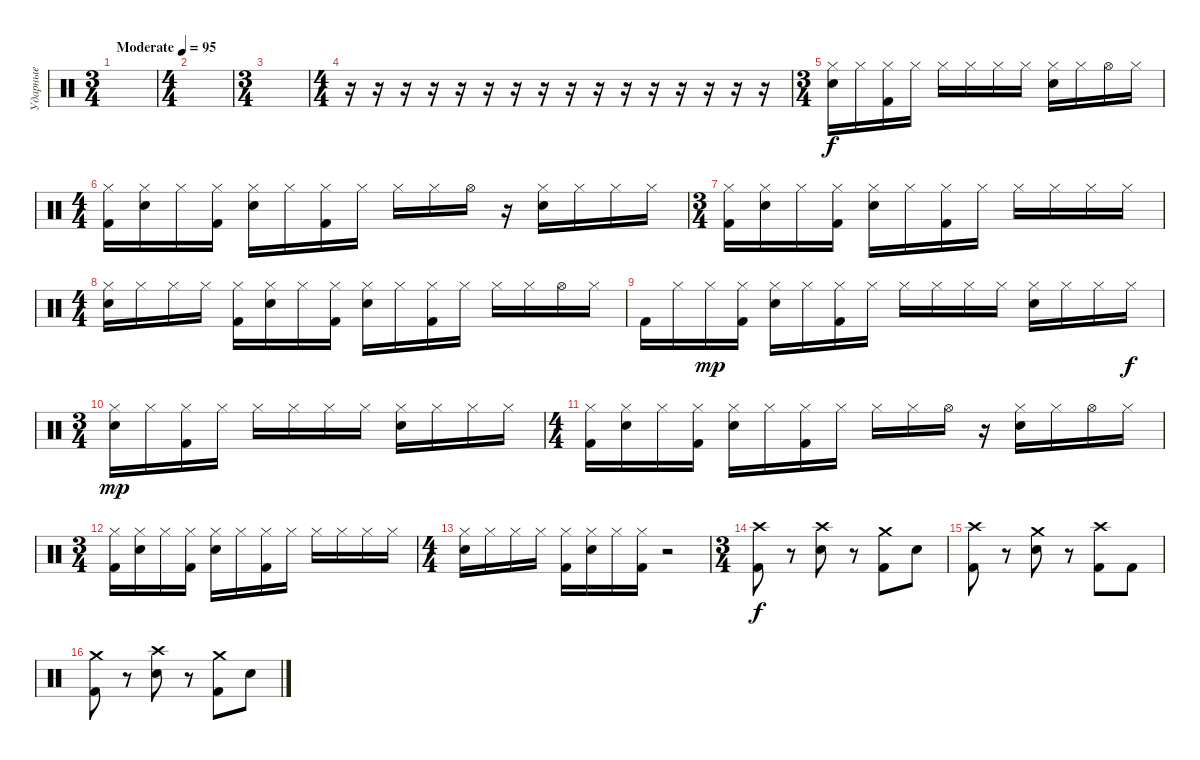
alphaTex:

\track ("Ударные" "Ударные") {instrument percussion}
\staff {score}
\articulation defaults
\ts (3 4)
\tempo (95 "Moderate")
\clef neutral
\ks c
|
\ts (4 4)
|
\ts (3 4)
|
\ts (4 4)
r.16 r.16 r.16 r.16 r.16 r.16 r.16 r.16 r.16 r.16 r.16 r.16 r.16 r.16 r.16 r.16 |
\ts (3 4)
("Hi-Hat (closed)" "Electric Snare (hit)").16 "Hi-Hat (closed)".16 ("Hi-Hat (closed)" "Kick (hit) 2").16 "Hi-Hat (closed)".16 "Hi-Hat (closed)".16 "Hi-Hat (closed)".16 "Hi-Hat (closed)".16 "Hi-Hat (closed)".16 ("Hi-Hat (closed)" "Electric Snare (hit)").16 "Hi-Hat (closed)".16 "Hi-Hat (open)".16 "Hi-Hat (closed)".16 |
\ts (4 4)
("Hi-Hat (closed)" "Kick (hit) 2").16 ("Hi-Hat (closed)" "Electric Snare (hit)").16 "Hi-Hat (closed)".16 ("Hi-Hat (closed)" "Kick (hit) 2").16 ("Hi-Hat (closed)" "Electric Snare (hit)").16 "Hi-Hat (closed)".16 ("Hi-Hat (closed)" "Kick (hit) 2").16 "Hi-Hat (closed)".16 "Hi-Hat (closed)".16 "Hi-Hat (closed)".16 "Hi-Hat (open)".16 r.16 ("Hi-Hat (closed)" "Electric Snare (hit)").16 "Hi-Hat (closed)".16 "Hi-Hat (closed)".16 "Hi-Hat (closed)".16 |
\ts (3 4)
("Hi-Hat (closed)" "Kick (hit) 2").16 ("Hi-Hat (closed)" "Electric Snare (hit)").16 "Hi-Hat (closed)".16 ("Hi-Hat (closed)" "Kick (hit) 2").16 ("Hi-Hat (closed)" "Electric Snare (hit)").16 "Hi-Hat (closed)".16 ("Hi-Hat (closed)" "Kick (hit) 2").16 "Hi-Hat (closed)".16 "Hi-Hat (closed)".16 "Hi-Hat (closed)".16 "Hi-Hat (closed)".16 "Hi-Hat (closed)".16 |
\ts (4 4)
("Hi-Hat (closed)" "Electric Snare (hit)").16 "Hi-Hat (closed)".16 "Hi-Hat (closed)".16 "Hi-Hat (closed)".16 ("Hi-Hat (closed)" "Kick (hit) 2").16 ("Hi-Hat (closed)" "Electric Snare (hit)").16 "Hi-Hat (closed)".16 ("Hi-Hat (closed)" "Kick (hit) 2").16 ("Hi-Hat (closed)" "Electric Snare (hit)").16 "Hi-Hat (closed)".16 ("Hi-Hat (closed)" "Kick (hit) 2").16 "Hi-Hat (closed)".16 "Hi-Hat (closed)".16 "Hi-Hat (closed)".16{dy f} "Hi-Hat (open)".16 "Hi-Hat (closed)".16 |
"Kick (hit) 2".16 "Hi-Hat (closed)".16 "Hi-Hat (closed)".16{dy mp} ("Hi-Hat (closed)" "Kick (hit) 2").16 ("Hi-Hat (closed)" "Electric Snare (hit)").16 "Hi-Hat (closed)".16 ("Hi-Hat (closed)" "Kick (hit) 2").16 "Hi-Hat (closed)".16 "Hi-Hat (closed)".16 "Hi-Hat (closed)".16 "Hi-Hat (closed)".16 "Hi-Hat (closed)".16 ("Hi-Hat (closed)" "Electric Snare (hit)").16 "Hi-Hat (closed)".16 "Hi-Hat (closed)".16 "Hi-Hat (closed)".16{dy f} |
\ts (3 4)
("Hi-Hat (closed)" "Electric Snare (hit)").16{dy mp} "Hi-Hat (closed)".16 ("Hi-Hat (closed)" "Kick (hit) 2").16 "Hi-Hat (closed)".16 "Hi-Hat (closed)".16 "Hi-Hat (closed)".16 "Hi-Hat (closed)".16 "Hi-Hat (closed)".16 ("Hi-Hat (closed)" "Electric Snare (hit)").16 "Hi-Hat (closed)".16 "Hi-Hat (closed)".16 "Hi-Hat (closed)".16 |
\ts (4 4)
("Hi-Hat (closed)" "Kick (hit) 2").16 ("Hi-Hat (closed)" "Electric Snare (hit)").16 "Hi-Hat (closed)".16 ("Hi-Hat (closed)" "Kick (hit) 2").16 ("Hi-Hat (closed)" "Electric Snare (hit)").16 "Hi-Hat (closed)".16 ("Hi-Hat (closed)" "Kick (hit) 2").16 "Hi-Hat (closed)".16 "Hi-Hat (closed)".16 "Hi-Hat (closed)".16 "Hi-Hat (open)".16 r.16 ("Hi-Hat (closed)" "Electric Snare (hit)").16 "Hi-Hat (closed)".16 "Hi-Hat (open)".16 "Hi-Hat (closed)".16 |
\ts (3 4)
("Hi-Hat (closed)" "Kick (hit) 2").16 ("Hi-Hat (closed)" "Electric Snare (hit)").16 "Hi-Hat (closed)".16 ("Hi-Hat (closed)" "Kick (hit) 2").16 ("Hi-Hat (closed)" "Electric Snare (hit)").16 "Hi-Hat (closed)".16 ("Hi-Hat (closed)" "Kick (hit) 2").16 "Hi-Hat (closed)".16 "Hi-Hat (closed)".16 "Hi-Hat (closed)".16 "Hi-Hat (closed)".16 "Hi-Hat (closed)".16 |
\ts (4 4)
("Hi-Hat (closed)" "Electric Snare (hit)").16 "Hi-Hat (closed)".16 "Hi-Hat (closed)".16 "Hi-Hat (closed)".16 ("Hi-Hat (closed)" "Kick (hit) 2").16 ("Hi-Hat (closed)" "Electric Snare (hit)").16 "Hi-Hat (closed)".16 ("Hi-Hat (closed)" "Kick (hit) 2").16 r.2 |
\ts (3 4)
("Crash high (hit)" "Kick (hit) 2").8{dy f volume 16} r.8 ("Crash high (hit)" "Snare (hit) 2").8 r.8 ("Crash medium (hit)" "Kick (hit) 2").8 "Snare (hit) 2".8 |
("Crash high (hit)" "Kick (hit) 2").8 r.8 ("Crash medium (hit)" "Snare (hit) 2").8 r.8 ("Crash high (hit)" "Kick (hit) 2").8 "Kick (hit) 2".8 |
("Crash medium (hit)" "Kick (hit) 2").8 r.8 ("Crash high (hit)" "Snare (hit) 2").8 r.8 ("Crash medium (hit)" "Kick (hit) 2").8 "Snare (hit) 2".8
